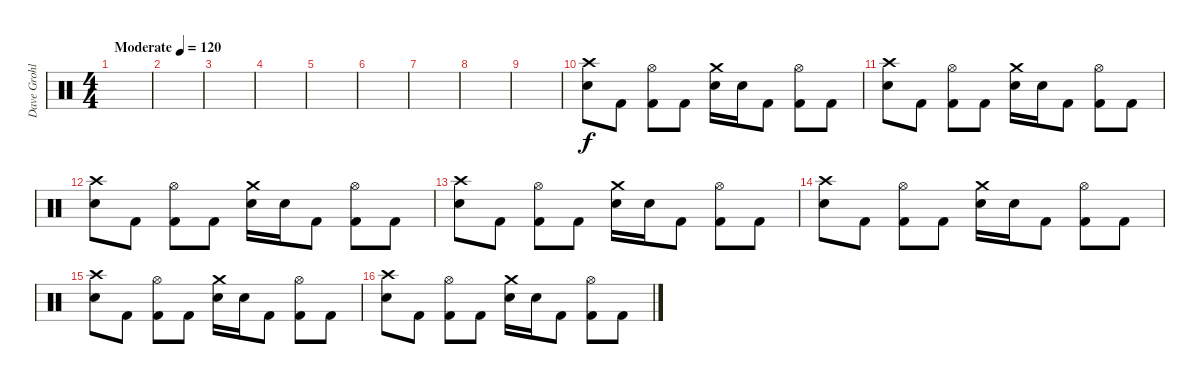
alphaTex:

\track ("Dave Grohl" "Dave Grohl") {instrument percussion}
\staff {score}
\articulation defaults
\ts (4 4)
\tempo (120 "Moderate")
\clef neutral
\ks c
|
|
|
|
|
|
|
|
|
("Electric Snare (hit)" "Crash high (hit)").8 "Kick (hit) 2".8 ("Hi-Hat (open)" "Kick (hit) 2").8 "Kick (hit) 2".8 ("Crash medium (hit)" "Electric Snare (hit)").16 "Electric Snare (hit)".16 "Kick (hit) 2".8 ("Hi-Hat (open)" "Kick (hit) 2").8 "Kick (hit) 2".8 |
("Electric Snare (hit)" "Crash high (hit)").8 "Kick (hit) 2".8 ("Hi-Hat (open)" "Kick (hit) 2").8 "Kick (hit) 2".8 ("Crash medium (hit)" "Electric Snare (hit)").16 "Electric Snare (hit)".16 "Kick (hit) 2".8 ("Hi-Hat (open)" "Kick (hit) 2").8 "Kick (hit) 2".8 |
("Electric Snare (hit)" "Crash high (hit)").8 "Kick (hit) 2".8 ("Hi-Hat (open)" "Kick (hit) 2").8 "Kick (hit) 2".8 ("Crash medium (hit)" "Electric Snare (hit)").16 "Electric Snare (hit)".16 "Kick (hit) 2".8 ("Hi-Hat (open)" "Kick (hit) 2").8 "Kick (hit) 2".8 |
("Electric Snare (hit)" "Crash high (hit)").8 "Kick (hit) 2".8 ("Hi-Hat (open)" "Kick (hit) 2").8 "Kick (hit) 2".8 ("Crash medium (hit)" "Electric Snare (hit)").16 "Electric Snare (hit)".16 "Kick (hit) 2".8 ("Hi-Hat (open)" "Kick (hit) 2").8 "Kick (hit) 2".8 |
("Electric Snare (hit)" "Crash high (hit)").8 "Kick (hit) 2".8 ("Hi-Hat (open)" "Kick (hit) 2").8 "Kick (hit) 2".8 ("Crash medium (hit)" "Electric Snare (hit)").16 "Electric Snare (hit)".16 "Kick (hit) 2".8 ("Hi-Hat (open)" "Kick (hit) 2").8 "Kick (hit) 2".8 |
("Electric Snare (hit)" "Crash high (hit)").8 "Kick (hit) 2".8 ("Hi-Hat (open)" "Kick (hit) 2").8 "Kick (hit) 2".8 ("Crash medium (hit)" "Electric Snare (hit)").16 "Electric Snare (hit)".16 "Kick (hit) 2".8 ("Hi-Hat (open)" "Kick (hit) 2").8 "Kick (hit) 2".8 |
("Electric Snare (hit)" "Crash high (hit)").8 "Kick (hit) 2".8 ("Hi-Hat (open)" "Kick (hit) 2").8 "Kick (hit) 2".8 ("Crash medium (hit)" "Electric Snare (hit)").16 "Electric Snare (hit)".16 "Kick (hit) 2".8 ("Hi-Hat (open)" "Kick (hit) 2").8 "Kick (hit) 2".8
